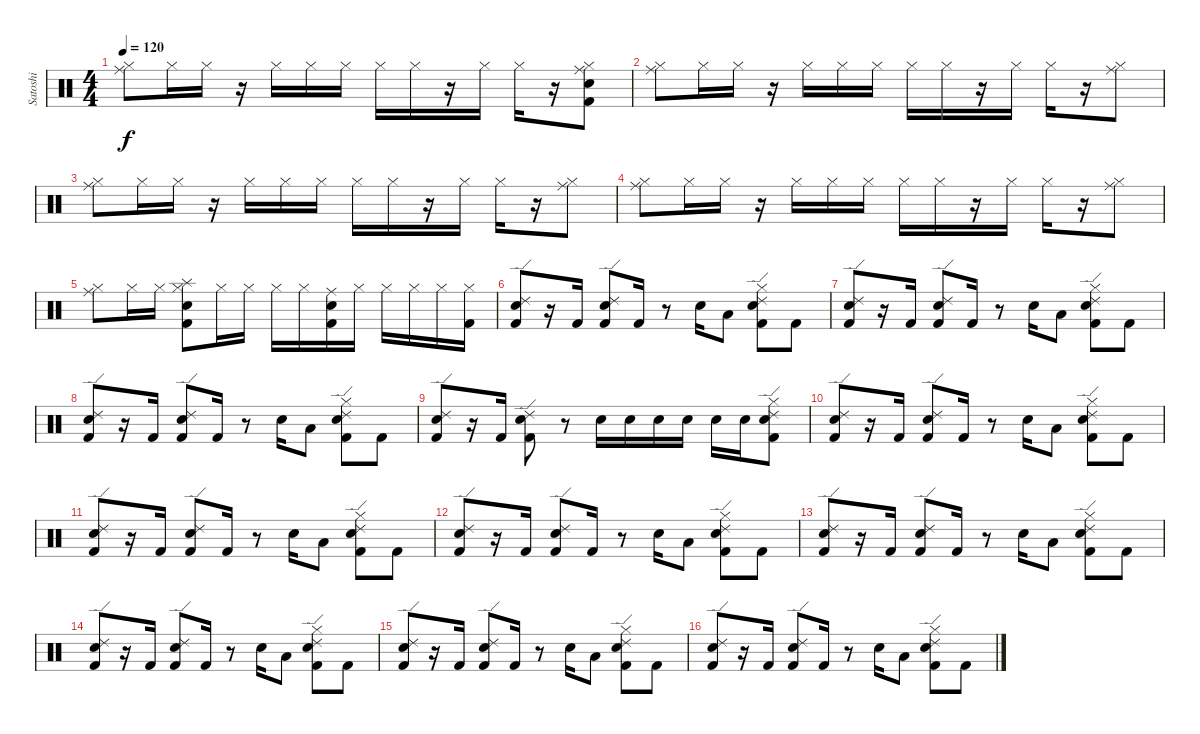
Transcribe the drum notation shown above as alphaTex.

\track ("Satoshi" "Satoshi") {instrument percussion}
\staff {score}
\articulation defaults
\ts (4 4)
\tempo 120
\clef neutral
\ks c
("Ride (middle)" "Hi-Hat (closed)").8{dy f} "Hi-Hat (closed)".16 "Hi-Hat (closed)".16 r.16 "Hi-Hat (closed)".16 "Hi-Hat (closed)".16 "Hi-Hat (closed)".16 "Hi-Hat (closed)".16 "Hi-Hat (closed)".16 r.16 "Hi-Hat (closed)".16 "Hi-Hat (closed)".16 r.16 ("Ride (middle)" "Hi-Hat (closed)" "Electric Snare (hit)" "Kick (hit) 2").8 |
("Ride (middle)" "Hi-Hat (closed)").8 "Hi-Hat (closed)".16 "Hi-Hat (closed)".16 r.16 "Hi-Hat (closed)".16 "Hi-Hat (closed)".16 "Hi-Hat (closed)".16 "Hi-Hat (closed)".16 "Hi-Hat (closed)".16 r.16 "Hi-Hat (closed)".16 "Hi-Hat (closed)".16 r.16 ("Ride (middle)" "Hi-Hat (closed)").8 |
("Ride (middle)" "Hi-Hat (closed)").8 "Hi-Hat (closed)".16 "Hi-Hat (closed)".16 r.16 "Hi-Hat (closed)".16 "Hi-Hat (closed)".16 "Hi-Hat (closed)".16 "Hi-Hat (closed)".16 "Hi-Hat (closed)".16 r.16 "Hi-Hat (closed)".16 "Hi-Hat (closed)".16 r.16 ("Ride (middle)" "Hi-Hat (closed)").8 |
("Ride (middle)" "Hi-Hat (closed)").8 "Hi-Hat (closed)".16 "Hi-Hat (closed)".16 r.16 "Hi-Hat (closed)".16 "Hi-Hat (closed)".16 "Hi-Hat (closed)".16 "Hi-Hat (closed)".16 "Hi-Hat (closed)".16 r.16 "Hi-Hat (closed)".16 "Hi-Hat (closed)".16 r.16 ("Ride (middle)" "Hi-Hat (closed)").8 |
("Ride (middle)" "Hi-Hat (closed)").8 "Hi-Hat (closed)".16 "Hi-Hat (closed)".16 ("Splash (hit)" "Hi-Hat (closed)" "Electric Snare (hit)" "Kick (hit) 2").8 "Hi-Hat (closed)".16 "Hi-Hat (closed)".16 "Hi-Hat (closed)".16 "Hi-Hat (closed)".16 ("Ride (middle)" "Electric Snare (hit)" "Kick (hit) 2").16 "Hi-Hat (closed)".16 "Hi-Hat (closed)".16 "Hi-Hat (closed)".16 "Hi-Hat (closed)".16 ("Hi-Hat (closed)" "Kick (hit) 2").16 |
("Ride (edge) 2" "Electric Snare (hit)" "Kick (hit) 2").8 r.16 "Kick (hit) 2".16 ("Ride (edge) 2" "Electric Snare (hit)" "Kick (hit) 2").8 "Kick (hit) 2".16 r.8 "Electric Snare (hit)".16 "Low Floor Tom (hit)".8 ("Ride (edge) 2" "Hi-Hat (closed)" "Electric Snare (hit)" "Kick (hit) 2").8 "Kick (hit) 2".8 |
("Ride (edge) 2" "Electric Snare (hit)" "Kick (hit) 2").8 r.16 "Kick (hit) 2".16 ("Ride (edge) 2" "Electric Snare (hit)" "Kick (hit) 2").8 "Kick (hit) 2".16 r.8 "Electric Snare (hit)".16 "Low Floor Tom (hit)".8 ("Ride (edge) 2" "Hi-Hat (closed)" "Electric Snare (hit)" "Kick (hit) 2").8 "Kick (hit) 2".8 |
("Ride (edge) 2" "Electric Snare (hit)" "Kick (hit) 2").8 r.16 "Kick (hit) 2".16 ("Ride (edge) 2" "Electric Snare (hit)" "Kick (hit) 2").8 "Kick (hit) 2".16 r.8 "Electric Snare (hit)".16 "Low Floor Tom (hit)".8 ("Ride (edge) 2" "Hi-Hat (closed)" "Electric Snare (hit)" "Kick (hit) 2").8 "Kick (hit) 2".8 |
("Ride (edge) 2" "Electric Snare (hit)" "Kick (hit) 2").8 r.16 "Kick (hit) 2".16 ("Ride (edge) 2" "Electric Snare (hit)" "Kick (hit) 2").8 r.8 "Electric Snare (hit)".16 "Electric Snare (hit)".16 "Electric Snare (hit)".16 "Electric Snare (hit)".16 "Electric Snare (hit)".16 "Electric Snare (hit)".16 ("Ride (edge) 2" "Hi-Hat (closed)" "Electric Snare (hit)" "Kick (hit) 2").8 |
("Ride (edge) 2" "Electric Snare (hit)" "Kick (hit) 2").8 r.16 "Kick (hit) 2".16 ("Ride (edge) 2" "Electric Snare (hit)" "Kick (hit) 2").8 "Kick (hit) 2".16 r.8 "Electric Snare (hit)".16 "Low Floor Tom (hit)".8 ("Ride (edge) 2" "Hi-Hat (closed)" "Electric Snare (hit)" "Kick (hit) 2").8 "Kick (hit) 2".8 |
("Ride (edge) 2" "Electric Snare (hit)" "Kick (hit) 2").8 r.16 "Kick (hit) 2".16 ("Ride (edge) 2" "Electric Snare (hit)" "Kick (hit) 2").8 "Kick (hit) 2".16 r.8 "Electric Snare (hit)".16 "Low Floor Tom (hit)".8 ("Ride (edge) 2" "Hi-Hat (closed)" "Electric Snare (hit)" "Kick (hit) 2").8 "Kick (hit) 2".8 |
("Ride (edge) 2" "Electric Snare (hit)" "Kick (hit) 2").8 r.16 "Kick (hit) 2".16 ("Ride (edge) 2" "Electric Snare (hit)" "Kick (hit) 2").8 "Kick (hit) 2".16 r.8 "Electric Snare (hit)".16 "Low Floor Tom (hit)".8 ("Ride (edge) 2" "Hi-Hat (closed)" "Electric Snare (hit)" "Kick (hit) 2").8 "Kick (hit) 2".8 |
("Ride (edge) 2" "Electric Snare (hit)" "Kick (hit) 2").8 r.16 "Kick (hit) 2".16 ("Ride (edge) 2" "Electric Snare (hit)" "Kick (hit) 2").8 "Kick (hit) 2".16 r.8 "Electric Snare (hit)".16 "Low Floor Tom (hit)".8 ("Ride (edge) 2" "Hi-Hat (closed)" "Electric Snare (hit)" "Kick (hit) 2").8 "Kick (hit) 2".8 |
("Ride (edge) 2" "Electric Snare (hit)" "Kick (hit) 2").8 r.16 "Kick (hit) 2".16 ("Ride (edge) 2" "Electric Snare (hit)" "Kick (hit) 2").8 "Kick (hit) 2".16 r.8 "Electric Snare (hit)".16 "Low Floor Tom (hit)".8 ("Ride (edge) 2" "Hi-Hat (closed)" "Electric Snare (hit)" "Kick (hit) 2").8 "Kick (hit) 2".8 |
("Ride (edge) 2" "Electric Snare (hit)" "Kick (hit) 2").8 r.16 "Kick (hit) 2".16 ("Ride (edge) 2" "Electric Snare (hit)" "Kick (hit) 2").8 "Kick (hit) 2".16 r.8 "Electric Snare (hit)".16 "Low Floor Tom (hit)".8 ("Ride (edge) 2" "Hi-Hat (closed)" "Electric Snare (hit)" "Kick (hit) 2").8 "Kick (hit) 2".8 |
("Ride (edge) 2" "Electric Snare (hit)" "Kick (hit) 2").8 r.16 "Kick (hit) 2".16 ("Ride (edge) 2" "Electric Snare (hit)" "Kick (hit) 2").8 "Kick (hit) 2".16 r.8 "Electric Snare (hit)".16 "Low Floor Tom (hit)".8 ("Ride (edge) 2" "Hi-Hat (closed)" "Electric Snare (hit)" "Kick (hit) 2").8 "Kick (hit) 2".8
